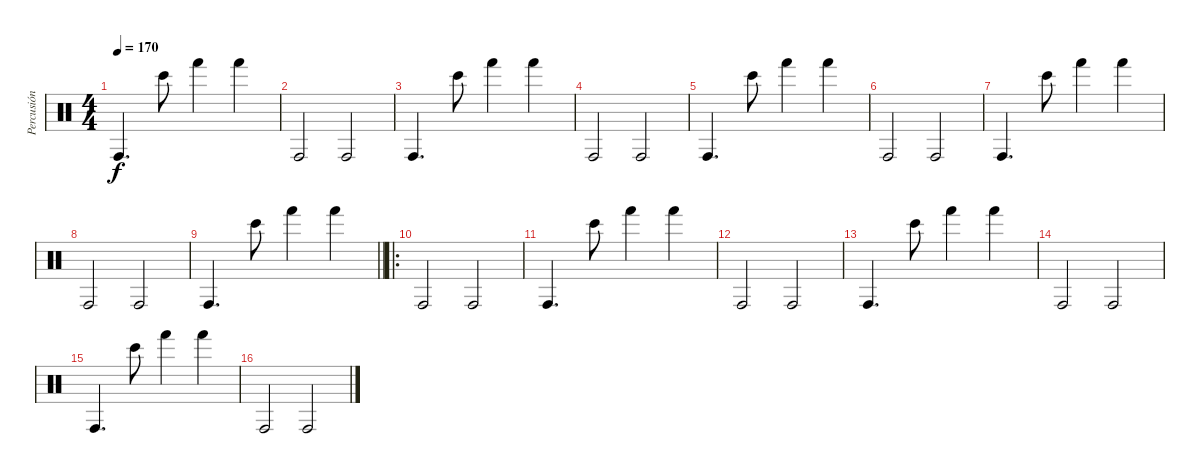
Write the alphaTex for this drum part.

\track ("Percusión" "Percusión") {instrument percussion}
\staff {score}
\articulation defaults
\ts (4 4)
\tempo 170
\clef neutral
\ks c "Conga high (hit)".4{d dy f} "Bongo High (hit)".8 "Hand (hit)".4 "Hand (hit)".4
|
"Conga high (hit)".2 "Conga high (hit)".2 |
"Conga high (hit)".4{d} "Bongo High (hit)".8 "Hand (hit)".4 "Hand (hit)".4 |
"Conga high (hit)".2 "Conga high (hit)".2 |
"Conga high (hit)".4{d} "Bongo High (hit)".8 "Hand (hit)".4 "Hand (hit)".4 |
"Conga high (hit)".2 "Conga high (hit)".2 |
"Conga high (hit)".4{d} "Bongo High (hit)".8 "Hand (hit)".4 "Hand (hit)".4 |
"Conga high (hit)".2 "Conga high (hit)".2 |
\barLineRight lightlight "Conga high (hit)".4{d} "Bongo High (hit)".8 "Hand (hit)".4 "Hand (hit)".4
|
\ro "Conga high (hit)".2 "Conga high (hit)".2
|
"Conga high (hit)".4{d} "Bongo High (hit)".8 "Hand (hit)".4 "Hand (hit)".4 |
"Conga high (hit)".2 "Conga high (hit)".2 |
"Conga high (hit)".4{d} "Bongo High (hit)".8 "Hand (hit)".4 "Hand (hit)".4 |
"Conga high (hit)".2 "Conga high (hit)".2 |
"Conga high (hit)".4{d} "Bongo High (hit)".8 "Hand (hit)".4 "Hand (hit)".4 |
"Conga high (hit)".2 "Conga high (hit)".2
